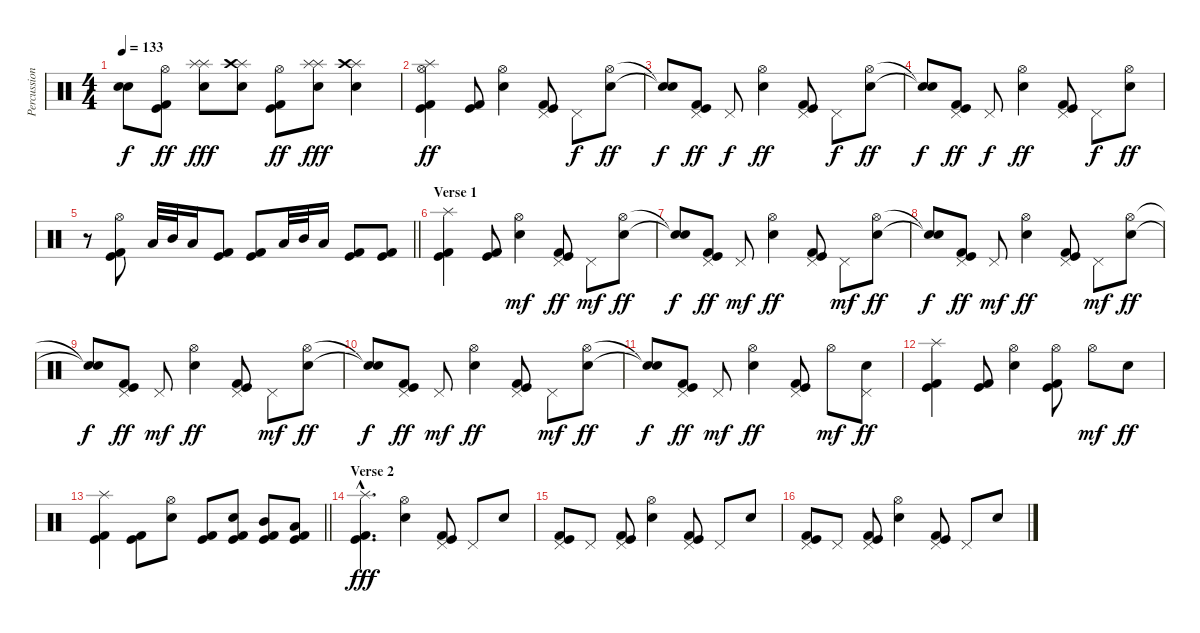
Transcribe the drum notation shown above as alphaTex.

\track ("Percussion" "Percussion") {instrument percussion}
\staff {score}
\articulation defaults
\ts (4 4)
\tempo 133
\clef neutral
\ks c
("Snare (hit)"{t} "Snare (hit)"{t}).8{dy f} ("Hi-Hat (open)" "Kick (hit)" "Kick (hit) 2").8{dy ff} ("Splash (hit)" "Splash (hit)" "Snare (hit) 2").8{dy fff} ("Splash (hit)" "Crash high (hit)" "Snare (hit) 2").8 ("Hi-Hat (open)" "Kick (hit)" "Kick (hit) 2").8{dy ff} ("Splash (hit)" "Splash (hit)" "Snare (hit) 2").8{dy fff} ("Splash (hit)" "Crash high (hit)" "Snare (hit) 2").4 |
("Hi-Hat (open)" "Splash (hit)" "Kick (hit)" "Kick (hit) 2").4{dy ff} ("Kick (hit)" "Kick (hit) 2").8 ("Hi-Hat (open)" "Snare (hit) 2").4 ("Pedal Hi-Hat (hit)" "Kick (hit)" "Kick (hit) 2").8 "Pedal Hi-Hat (hit)".8{dy f} ("Hi-Hat (open)" "Snare (hit) 2").8{dy ff} |
("Snare (hit)"{t} "Snare (hit)"{t}).8{dy f} ("Pedal Hi-Hat (hit)" "Kick (hit)" "Kick (hit) 2").8{dy ff} "Pedal Hi-Hat (hit)".8{dy f} ("Hi-Hat (open)" "Snare (hit) 2").4{dy ff} ("Pedal Hi-Hat (hit)" "Kick (hit)" "Kick (hit) 2").8 "Pedal Hi-Hat (hit)".8{dy f} ("Hi-Hat (open)" "Snare (hit) 2").8{dy ff} |
("Snare (hit)"{t} "Snare (hit)"{t}).8{dy f} ("Pedal Hi-Hat (hit)" "Kick (hit)" "Kick (hit) 2").8{dy ff} "Pedal Hi-Hat (hit)".8{dy f} ("Hi-Hat (open)" "Snare (hit) 2").4{dy ff} ("Pedal Hi-Hat (hit)" "Kick (hit)" "Kick (hit) 2").8 "Pedal Hi-Hat (hit)".8{dy f} ("Hi-Hat (open)" "Snare (hit) 2").8{dy ff} |
\barLineRight lightlight
r.8 ("Hi-Hat (open)" "Kick (hit)" "Kick (hit) 2").8 "Low Tom (hit)".32{balance 4} "Mid Tom (hit)".32{balance 12} "Low Tom (hit)".16{balance 4} ("Kick (hit) 2" "Kick (hit)").8{balance 8} ("Kick (hit) 2" "Kick (hit)").8 "Low Tom (hit)".32{balance 4} "Mid Tom (hit)".32{balance 12} "Low Tom (hit)".16{balance 4} ("Kick (hit) 2" "Kick (hit)").8{balance 8} ("Kick (hit) 2" "Kick (hit)").8 |
\section ("" "Verse 1")
("Splash (hit)" "Kick (hit)" "Kick (hit) 2").4 ("Kick (hit)" "Kick (hit) 2").8 ("Hi-Hat (open)" "Snare (hit) 2").4{dy mf} ("Pedal Hi-Hat (hit)" "Kick (hit)" "Kick (hit) 2").8{dy ff} "Pedal Hi-Hat (hit)".8{dy mf} ("Hi-Hat (open)" "Snare (hit) 2").8{dy ff} |
("Snare (hit)"{t} "Snare (hit)"{t}).8{dy f} ("Pedal Hi-Hat (hit)" "Kick (hit)" "Kick (hit) 2").8{dy ff} "Pedal Hi-Hat (hit)".8{dy mf} ("Hi-Hat (open)" "Snare (hit) 2").4{dy ff} ("Pedal Hi-Hat (hit)" "Kick (hit)" "Kick (hit) 2").8 "Pedal Hi-Hat (hit)".8{dy mf} ("Hi-Hat (open)" "Snare (hit) 2").8{dy ff} |
("Snare (hit)"{t} "Snare (hit)"{t}).8{dy f} ("Pedal Hi-Hat (hit)" "Kick (hit)" "Kick (hit) 2").8{dy ff} "Pedal Hi-Hat (hit)".8{dy mf} ("Hi-Hat (open)" "Snare (hit) 2").4{dy ff} ("Pedal Hi-Hat (hit)" "Kick (hit)" "Kick (hit) 2").8 "Pedal Hi-Hat (hit)".8{dy mf} ("Hi-Hat (open)" "Snare (hit) 2").8{dy ff} |
("Snare (hit)"{t} "Snare (hit)"{t}).8{dy f} ("Pedal Hi-Hat (hit)" "Kick (hit)" "Kick (hit) 2").8{dy ff} "Pedal Hi-Hat (hit)".8{dy mf} ("Hi-Hat (open)" "Snare (hit) 2").4{dy ff} ("Pedal Hi-Hat (hit)" "Kick (hit)" "Kick (hit) 2").8 "Pedal Hi-Hat (hit)".8{dy mf} ("Hi-Hat (open)" "Snare (hit) 2").8{dy ff} |
("Snare (hit)"{t} "Snare (hit)"{t}).8{dy f} ("Pedal Hi-Hat (hit)" "Kick (hit)" "Kick (hit) 2").8{dy ff} "Pedal Hi-Hat (hit)".8{dy mf} ("Hi-Hat (open)" "Snare (hit) 2").4{dy ff} ("Pedal Hi-Hat (hit)" "Kick (hit)" "Kick (hit) 2").8 "Pedal Hi-Hat (hit)".8{dy mf} ("Hi-Hat (open)" "Snare (hit) 2").8{dy ff} |
("Snare (hit)"{t} "Snare (hit)"{t}).8{dy f} ("Pedal Hi-Hat (hit)" "Kick (hit)" "Kick (hit) 2").8{dy ff} "Pedal Hi-Hat (hit)".8{dy mf} ("Hi-Hat (open)" "Snare (hit) 2").4{dy ff} ("Pedal Hi-Hat (hit)" "Kick (hit)" "Kick (hit) 2").8 "Hi-Hat (open)".8{dy mf} ("Pedal Hi-Hat (hit)" "Snare (hit) 2").8{dy ff} |
("Splash (hit)" "Kick (hit)" "Kick (hit) 2").4 ("Kick (hit)" "Kick (hit) 2").8 ("Hi-Hat (open)" "Snare (hit) 2").4 ("Hi-Hat (open)" "Kick (hit)" "Kick (hit) 2").8 "Hi-Hat (open)".8{dy mf} "Snare (hit) 2".8{dy ff} |
\barLineRight lightlight
("Splash (hit)" "Kick (hit)" "Kick (hit) 2").4 ("Kick (hit)" "Kick (hit) 2").8 ("Hi-Hat (open)" "Snare (hit) 2").8 ("Kick (hit)" "Kick (hit) 2").8 ("Snare (hit) 2" "Kick (hit)" "Kick (hit) 2").8 ("Mid Tom (hit)" "Kick (hit)" "Kick (hit) 2").8 ("Low Tom (hit)" "Kick (hit)" "Kick (hit) 2").8 |
\section ("" "Verse 2")
("Splash (hit)"{hac} "Kick (hit)"{hac} "Kick (hit) 2"{hac}).4{d dy fff} ("Hi-Hat (open)" "Snare (hit) 2").4 ("Pedal Hi-Hat (hit)" "Kick (hit)" "Kick (hit) 2").8 "Pedal Hi-Hat (hit)".8 "Snare (hit) 2".8 |
("Pedal Hi-Hat (hit)" "Kick (hit)" "Kick (hit) 2").8 "Pedal Hi-Hat (hit)".8 ("Pedal Hi-Hat (hit)" "Kick (hit)" "Kick (hit) 2").8 ("Hi-Hat (open)" "Snare (hit) 2").4 ("Pedal Hi-Hat (hit)" "Kick (hit)" "Kick (hit) 2").8 "Pedal Hi-Hat (hit)".8 "Snare (hit) 2".8 |
("Pedal Hi-Hat (hit)" "Kick (hit)" "Kick (hit) 2").8 "Pedal Hi-Hat (hit)".8 ("Pedal Hi-Hat (hit)" "Kick (hit)" "Kick (hit) 2").8 ("Hi-Hat (open)" "Snare (hit) 2").4 ("Pedal Hi-Hat (hit)" "Kick (hit)" "Kick (hit) 2").8 "Pedal Hi-Hat (hit)".8 "Snare (hit) 2".8
